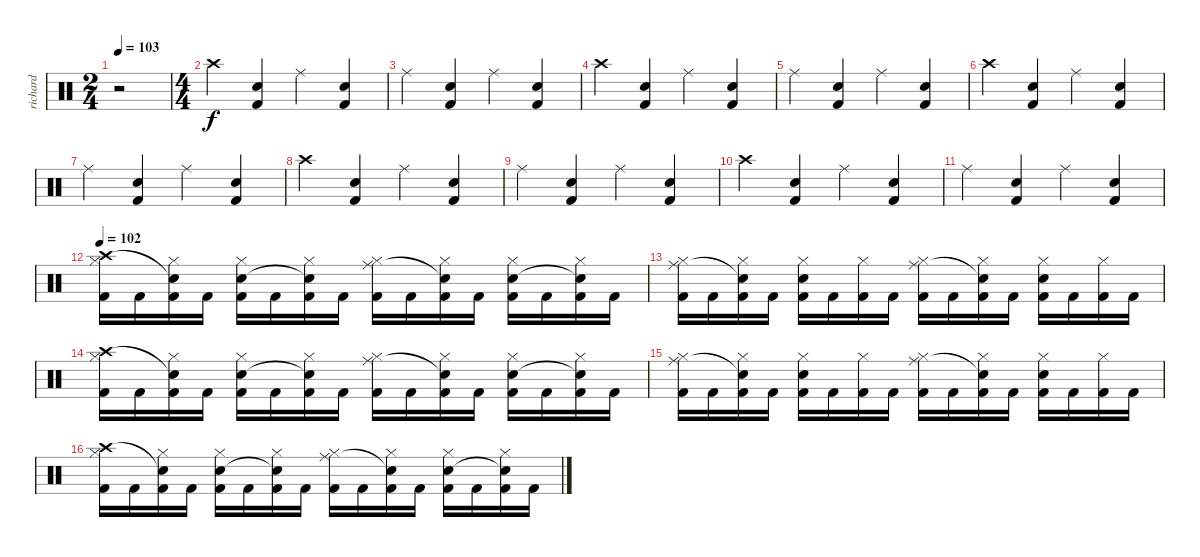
\track ("richard" "richard") {instrument percussion}
\staff {score}
\articulation defaults
\ts (2 4)
\tempo 103
\clef neutral
\ks c
r.2{dy f} |
\ts (4 4)
"Crash high (hit)".4 ("Snare (hit) 2" "Kick (hit) 2").4 "Ride (middle)".4 ("Snare (hit) 2" "Kick (hit) 2").4 |
"Ride (middle)".4 ("Snare (hit) 2" "Kick (hit) 2").4 "Ride (middle)".4 ("Snare (hit) 2" "Kick (hit) 2").4 |
"Crash high (hit)".4 ("Snare (hit) 2" "Kick (hit) 2").4 "Ride (middle)".4 ("Snare (hit) 2" "Kick (hit) 2").4 |
"Ride (middle)".4 ("Snare (hit) 2" "Kick (hit) 2").4 "Ride (middle)".4 ("Snare (hit) 2" "Kick (hit) 2").4 |
"Crash high (hit)".4 ("Snare (hit) 2" "Kick (hit) 2").4 "Ride (middle)".4 ("Snare (hit) 2" "Kick (hit) 2").4 |
"Ride (middle)".4 ("Snare (hit) 2" "Kick (hit) 2").4 "Ride (middle)".4 ("Snare (hit) 2" "Kick (hit) 2").4 |
"Crash high (hit)".4 ("Snare (hit) 2" "Kick (hit) 2").4 "Ride (middle)".4 ("Snare (hit) 2" "Kick (hit) 2").4 |
"Ride (middle)".4 ("Snare (hit) 2" "Kick (hit) 2").4 "Ride (middle)".4 ("Snare (hit) 2" "Kick (hit) 2").4 |
"Crash high (hit)".4 ("Snare (hit) 2" "Kick (hit) 2").4 "Ride (middle)".4 ("Snare (hit) 2" "Kick (hit) 2").4 |
"Ride (middle)".4 ("Snare (hit) 2" "Kick (hit) 2").4 "Ride (middle)".4 ("Snare (hit) 2" "Kick (hit) 2").4 |
\tempo 102
("Hi-Hat (closed)" "Crash high (hit)" "Kick (hit) 2").16 "Kick (hit) 2".16 ("Hi-Hat (closed)" "Snare (hit)"{t} "Kick (hit) 2").16 "Kick (hit) 2".16 ("Hi-Hat (closed)" "Snare (hit) 2" "Kick (hit) 2").16 "Kick (hit) 2".16 ("Hi-Hat (closed)" "Snare (hit)"{t} "Kick (hit) 2").16 "Kick (hit) 2".16 ("Hi-Hat (closed)" "Ride (middle)" "Kick (hit) 2").16 "Kick (hit) 2".16 ("Hi-Hat (closed)" "Snare (hit)"{t} "Kick (hit) 2").16 "Kick (hit) 2".16 ("Hi-Hat (closed)" "Snare (hit) 2" "Kick (hit) 2").16 "Kick (hit) 2".16 ("Hi-Hat (closed)" "Snare (hit)"{t} "Kick (hit) 2").16 "Kick (hit) 2".16 |
("Hi-Hat (closed)" "Ride (middle)" "Kick (hit) 2").16 "Kick (hit) 2".16 ("Hi-Hat (closed)" "Snare (hit)"{t} "Kick (hit) 2").16 "Kick (hit) 2".16 ("Hi-Hat (closed)" "Snare (hit) 2" "Kick (hit) 2").16 "Kick (hit) 2".16 ("Hi-Hat (closed)" "Kick (hit) 2").16 "Kick (hit) 2".16 ("Hi-Hat (closed)" "Ride (middle)" "Kick (hit) 2").16 "Kick (hit) 2".16 ("Hi-Hat (closed)" "Snare (hit)"{t} "Kick (hit) 2").16 "Kick (hit) 2".16 ("Hi-Hat (closed)" "Snare (hit) 2" "Kick (hit) 2").16 "Kick (hit) 2".16 ("Hi-Hat (closed)" "Kick (hit) 2").16 "Kick (hit) 2".16 |
("Hi-Hat (closed)" "Crash high (hit)" "Kick (hit) 2").16 "Kick (hit) 2".16 ("Hi-Hat (closed)" "Snare (hit)"{t} "Kick (hit) 2").16 "Kick (hit) 2".16 ("Hi-Hat (closed)" "Snare (hit) 2" "Kick (hit) 2").16 "Kick (hit) 2".16 ("Hi-Hat (closed)" "Snare (hit)"{t} "Kick (hit) 2").16 "Kick (hit) 2".16 ("Hi-Hat (closed)" "Ride (middle)" "Kick (hit) 2").16 "Kick (hit) 2".16 ("Hi-Hat (closed)" "Snare (hit)"{t} "Kick (hit) 2").16 "Kick (hit) 2".16 ("Hi-Hat (closed)" "Snare (hit) 2" "Kick (hit) 2").16 "Kick (hit) 2".16 ("Hi-Hat (closed)" "Snare (hit)"{t} "Kick (hit) 2").16 "Kick (hit) 2".16 |
("Hi-Hat (closed)" "Ride (middle)" "Kick (hit) 2").16 "Kick (hit) 2".16 ("Hi-Hat (closed)" "Snare (hit)"{t} "Kick (hit) 2").16 "Kick (hit) 2".16 ("Hi-Hat (closed)" "Snare (hit) 2" "Kick (hit) 2").16 "Kick (hit) 2".16 ("Hi-Hat (closed)" "Kick (hit) 2").16 "Kick (hit) 2".16 ("Hi-Hat (closed)" "Ride (middle)" "Kick (hit) 2").16 "Kick (hit) 2".16 ("Hi-Hat (closed)" "Snare (hit)"{t} "Kick (hit) 2").16 "Kick (hit) 2".16 ("Hi-Hat (closed)" "Snare (hit) 2" "Kick (hit) 2").16 "Kick (hit) 2".16 ("Hi-Hat (closed)" "Kick (hit) 2").16 "Kick (hit) 2".16 |
("Hi-Hat (closed)" "Crash high (hit)" "Kick (hit) 2").16 "Kick (hit) 2".16 ("Hi-Hat (closed)" "Snare (hit)"{t} "Kick (hit) 2").16 "Kick (hit) 2".16 ("Hi-Hat (closed)" "Snare (hit) 2" "Kick (hit) 2").16 "Kick (hit) 2".16 ("Hi-Hat (closed)" "Snare (hit)"{t} "Kick (hit) 2").16 "Kick (hit) 2".16 ("Hi-Hat (closed)" "Ride (middle)" "Kick (hit) 2").16 "Kick (hit) 2".16 ("Hi-Hat (closed)" "Snare (hit)"{t} "Kick (hit) 2").16 "Kick (hit) 2".16 ("Hi-Hat (closed)" "Snare (hit) 2" "Kick (hit) 2").16 "Kick (hit) 2".16 ("Hi-Hat (closed)" "Snare (hit)"{t} "Kick (hit) 2").16 "Kick (hit) 2".16
